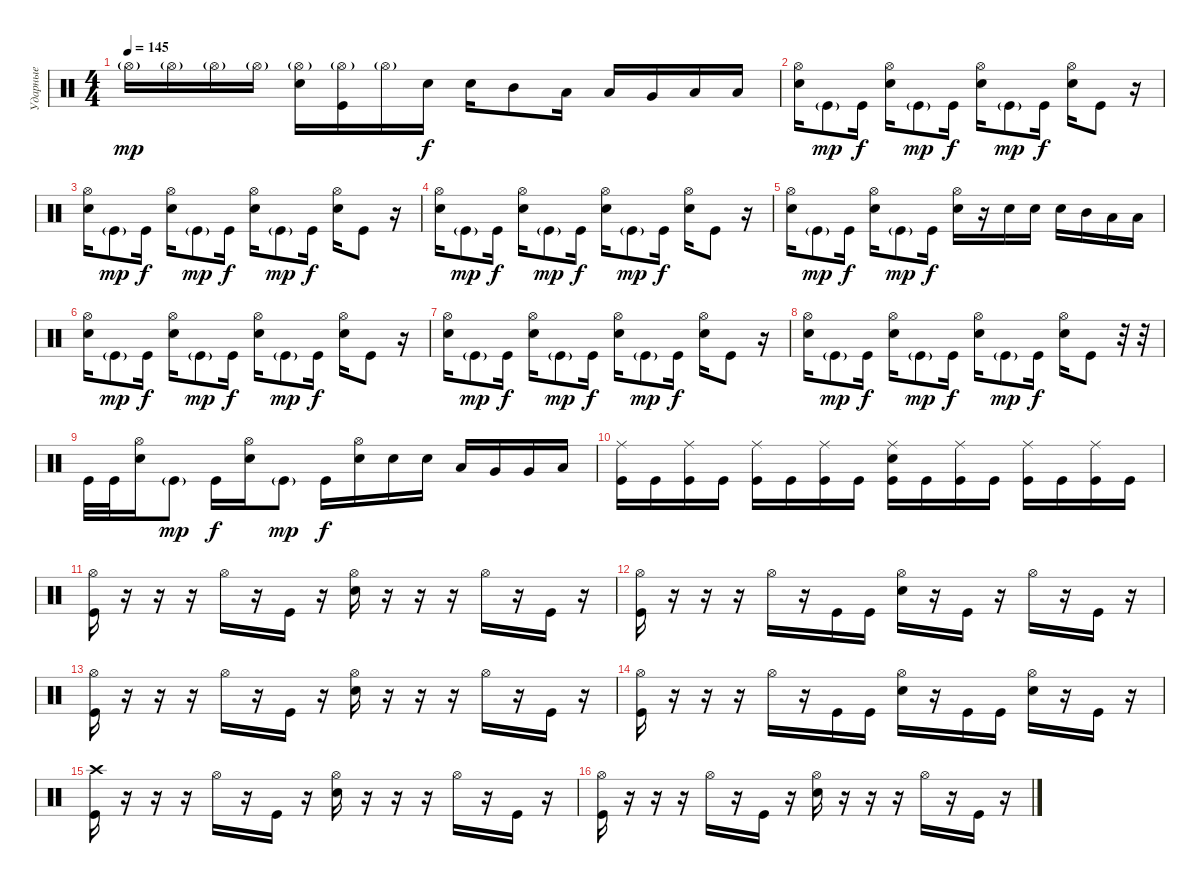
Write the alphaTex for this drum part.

\track ("Ударные" "Ударные") {instrument percussion}
\staff {score}
\articulation defaults
\ts (4 4)
\tempo 145
\clef neutral
\ks c "Hi-Hat (open)"{g}.16{dy mp} "Hi-Hat (open)"{g}.16 "Hi-Hat (open)"{g}.16 "Hi-Hat (open)"{g}.16
("Hi-Hat (open)"{g} "Snare (hit) 2").16 ("Hi-Hat (open)"{g} "Kick (hit)").16 "Hi-Hat (open)"{g}.16 "Snare (hit) 2".16{dy f} "Snare (hit) 2".16 "Mid Tom (hit)".8 "Low Tom (hit)".16 "Low Tom (hit)".16 "Very Low Tom (hit)".16 "Low Floor Tom (hit)".16 "Low Floor Tom (hit)".16 |
("Hi-Hat (open)" "Snare (hit) 2").16 "Kick (hit)"{g}.8{dy mp} "Kick (hit)".16{dy f} ("Hi-Hat (open)" "Snare (hit) 2").16 "Kick (hit)"{g}.8{dy mp} "Kick (hit)".16{dy f} ("Hi-Hat (open)" "Snare (hit) 2").16 "Kick (hit)"{g}.8{dy mp} "Kick (hit)".16{dy f} ("Hi-Hat (open)" "Snare (hit) 2").16 "Kick (hit)".8 r.16 |
("Hi-Hat (open)" "Snare (hit) 2").16 "Kick (hit)"{g}.8{dy mp} "Kick (hit)".16{dy f} ("Hi-Hat (open)" "Snare (hit) 2").16 "Kick (hit)"{g}.8{dy mp} "Kick (hit)".16{dy f} ("Hi-Hat (open)" "Snare (hit) 2").16 "Kick (hit)"{g}.8{dy mp} "Kick (hit)".16{dy f} ("Hi-Hat (open)" "Snare (hit) 2").16 "Kick (hit)".8 r.16 |
("Hi-Hat (open)" "Snare (hit) 2").16 "Kick (hit)"{g}.8{dy mp} "Kick (hit)".16{dy f} ("Hi-Hat (open)" "Snare (hit) 2").16 "Kick (hit)"{g}.8{dy mp} "Kick (hit)".16{dy f} ("Hi-Hat (open)" "Snare (hit) 2").16 "Kick (hit)"{g}.8{dy mp} "Kick (hit)".16{dy f} ("Hi-Hat (open)" "Snare (hit) 2").16 "Kick (hit)".8 r.16 |
("Hi-Hat (open)" "Snare (hit) 2").16 "Kick (hit)"{g}.8{dy mp} "Kick (hit)".16{dy f} ("Hi-Hat (open)" "Snare (hit) 2").16 "Kick (hit)"{g}.8{dy mp} "Kick (hit)".16{dy f} ("Hi-Hat (open)" "Snare (hit) 2").16 r.16 "Snare (hit) 2".16 "Snare (hit) 2".16 "Snare (hit) 2".16 "Mid Tom (hit)".16 "Low Tom (hit)".16 "Low Tom (hit)".16 |
("Hi-Hat (open)" "Snare (hit) 2").16 "Kick (hit)"{g}.8{dy mp} "Kick (hit)".16{dy f} ("Hi-Hat (open)" "Snare (hit) 2").16 "Kick (hit)"{g}.8{dy mp} "Kick (hit)".16{dy f} ("Hi-Hat (open)" "Snare (hit) 2").16 "Kick (hit)"{g}.8{dy mp} "Kick (hit)".16{dy f} ("Hi-Hat (open)" "Snare (hit) 2").16 "Kick (hit)".8 r.16 |
("Hi-Hat (open)" "Snare (hit) 2").16 "Kick (hit)"{g}.8{dy mp} "Kick (hit)".16{dy f} ("Hi-Hat (open)" "Snare (hit) 2").16 "Kick (hit)"{g}.8{dy mp} "Kick (hit)".16{dy f} ("Hi-Hat (open)" "Snare (hit) 2").16 "Kick (hit)"{g}.8{dy mp} "Kick (hit)".16{dy f} ("Hi-Hat (open)" "Snare (hit) 2").16 "Kick (hit)".8 r.16 |
("Hi-Hat (open)" "Snare (hit) 2").16 "Kick (hit)"{g}.8{dy mp} "Kick (hit)".16{dy f} ("Hi-Hat (open)" "Snare (hit) 2").16 "Kick (hit)"{g}.8{dy mp} "Kick (hit)".16{dy f} ("Hi-Hat (open)" "Snare (hit) 2").16 "Kick (hit)"{g}.8{dy mp} "Kick (hit)".16{dy f} ("Hi-Hat (open)" "Snare (hit) 2").16 "Kick (hit)".8 r.32 r.32 |
"Kick (hit)".32 "Kick (hit)".32 ("Hi-Hat (open)" "Snare (hit) 2").16 "Kick (hit)"{g}.8{dy mp} "Kick (hit)".16{dy f} ("Hi-Hat (open)" "Snare (hit) 2").16 "Kick (hit)"{g}.8{dy mp} "Kick (hit)".16{dy f} ("Hi-Hat (open)" "Snare (hit) 2").16 "Snare (hit) 2".16 "Snare (hit) 2".16 "Low Tom (hit)".16 "Very Low Tom (hit)".16 "Very Low Tom (hit)".16 "Low Floor Tom (hit)".16 |
("Ride (middle)" "Kick (hit)").16 "Kick (hit)".16 ("Ride (middle)" "Kick (hit)").16 "Kick (hit)".16 ("Ride (middle)" "Kick (hit)").16 "Kick (hit)".16 ("Ride (middle)" "Kick (hit)").16 "Kick (hit)".16 ("Ride (middle)" "Snare (hit) 2" "Kick (hit)").16 "Kick (hit)".16 ("Ride (middle)" "Kick (hit)").16 "Kick (hit)".16 ("Ride (middle)" "Kick (hit)").16 "Kick (hit)".16 ("Ride (middle)" "Kick (hit)").16 "Kick (hit)".16 |
("Hi-Hat (open)" "Kick (hit)").16 r.16 r.16 r.16 "Hi-Hat (open)".16 r.16 "Kick (hit)".16 r.16 ("Hi-Hat (open)" "Snare (hit) 2").16 r.16 r.16 r.16 "Hi-Hat (open)".16 r.16 "Kick (hit)".16 r.16 |
("Hi-Hat (open)" "Kick (hit)").16 r.16 r.16 r.16 "Hi-Hat (open)".16 r.16 "Kick (hit)".16 "Kick (hit)".16 ("Hi-Hat (open)" "Snare (hit) 2").16 r.16 "Kick (hit)".16 r.16 "Hi-Hat (open)".16 r.16 "Kick (hit)".16 r.16 |
("Hi-Hat (open)" "Kick (hit)").16 r.16 r.16 r.16 "Hi-Hat (open)".16 r.16 "Kick (hit)".16 r.16 ("Hi-Hat (open)" "Snare (hit) 2").16 r.16 r.16 r.16 "Hi-Hat (open)".16 r.16 "Kick (hit)".16 r.16 |
("Hi-Hat (open)" "Kick (hit)").16 r.16 r.16 r.16 "Hi-Hat (open)".16 r.16 "Kick (hit)".16 "Kick (hit)".16 ("Hi-Hat (open)" "Snare (hit) 2").16 r.16 "Kick (hit)".16 "Kick (hit)".16 ("Hi-Hat (open)" "Snare (hit) 2").16 r.16 "Kick (hit)".16 r.16 |
("Crash high (hit)" "Kick (hit)").16 r.16 r.16 r.16 "Hi-Hat (open)".16 r.16 "Kick (hit)".16 r.16 ("Hi-Hat (open)" "Snare (hit) 2").16 r.16 r.16 r.16 "Hi-Hat (open)".16 r.16 "Kick (hit)".16 r.16 |
("Hi-Hat (open)" "Kick (hit)").16 r.16 r.16 r.16 "Hi-Hat (open)".16 r.16 "Kick (hit)".16 r.16 ("Hi-Hat (open)" "Snare (hit) 2").16 r.16 r.16 r.16 "Hi-Hat (open)".16 r.16 "Kick (hit)".16 r.16
